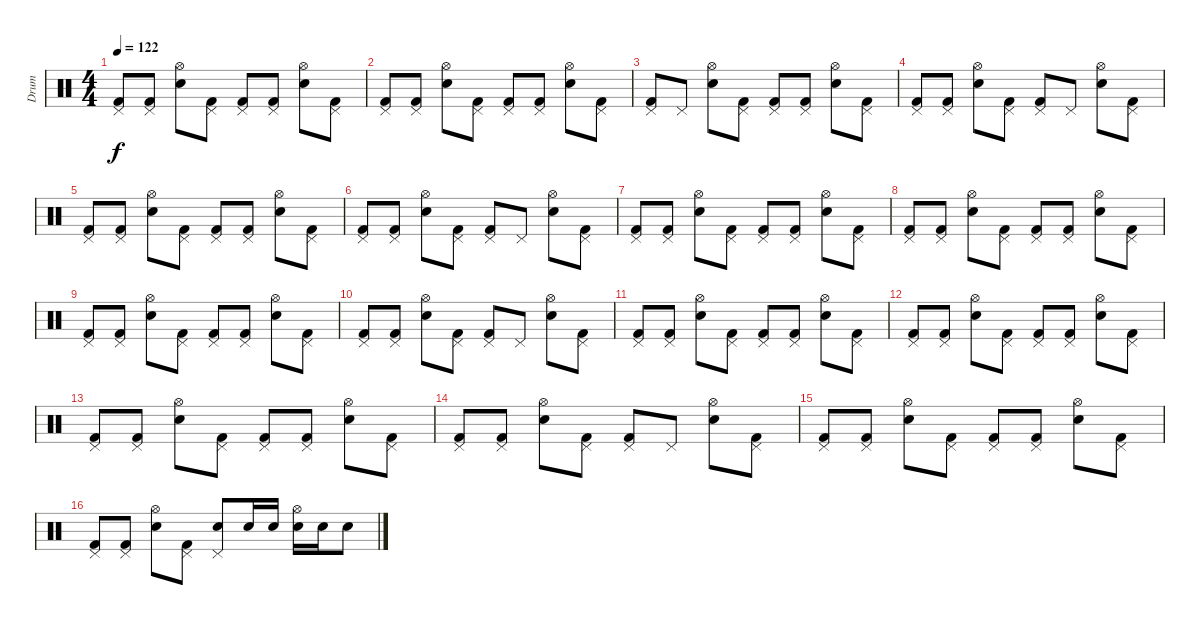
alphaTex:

\track ("Drum" "Drum") {instrument percussion}
\staff {score}
\articulation defaults
\ts (4 4)
\tempo 122
\clef neutral
\ks c
("Pedal Hi-Hat (hit)" "Kick (hit) 2").8{dy f} ("Pedal Hi-Hat (hit)" "Kick (hit) 2").8 ("Hi-Hat (open)" "Electric Snare (hit)").8 ("Pedal Hi-Hat (hit)" "Kick (hit) 2").8 ("Pedal Hi-Hat (hit)" "Kick (hit) 2").8 ("Pedal Hi-Hat (hit)" "Kick (hit) 2").8 ("Hi-Hat (open)" "Electric Snare (hit)").8 ("Pedal Hi-Hat (hit)" "Kick (hit) 2").8 |
("Pedal Hi-Hat (hit)" "Kick (hit) 2").8 ("Pedal Hi-Hat (hit)" "Kick (hit) 2").8 ("Hi-Hat (open)" "Electric Snare (hit)").8 ("Pedal Hi-Hat (hit)" "Kick (hit) 2").8 ("Pedal Hi-Hat (hit)" "Kick (hit) 2").8 ("Pedal Hi-Hat (hit)" "Kick (hit) 2").8 ("Hi-Hat (open)" "Electric Snare (hit)").8 ("Pedal Hi-Hat (hit)" "Kick (hit) 2").8 |
("Pedal Hi-Hat (hit)" "Kick (hit) 2").8 "Pedal Hi-Hat (hit)".8 ("Hi-Hat (open)" "Electric Snare (hit)").8 ("Pedal Hi-Hat (hit)" "Kick (hit) 2").8 ("Pedal Hi-Hat (hit)" "Kick (hit) 2").8 ("Pedal Hi-Hat (hit)" "Kick (hit) 2").8 ("Hi-Hat (open)" "Electric Snare (hit)").8 ("Pedal Hi-Hat (hit)" "Kick (hit) 2").8 |
("Pedal Hi-Hat (hit)" "Kick (hit) 2").8 ("Pedal Hi-Hat (hit)" "Kick (hit) 2").8 ("Hi-Hat (open)" "Electric Snare (hit)").8 ("Pedal Hi-Hat (hit)" "Kick (hit) 2").8 ("Pedal Hi-Hat (hit)" "Kick (hit) 2").8 "Pedal Hi-Hat (hit)".8 ("Hi-Hat (open)" "Electric Snare (hit)").8 ("Pedal Hi-Hat (hit)" "Kick (hit) 2").8 |
("Pedal Hi-Hat (hit)" "Kick (hit) 2").8 ("Pedal Hi-Hat (hit)" "Kick (hit) 2").8 ("Hi-Hat (open)" "Electric Snare (hit)").8 ("Pedal Hi-Hat (hit)" "Kick (hit) 2").8 ("Pedal Hi-Hat (hit)" "Kick (hit) 2").8 ("Pedal Hi-Hat (hit)" "Kick (hit) 2").8 ("Hi-Hat (open)" "Electric Snare (hit)").8 ("Pedal Hi-Hat (hit)" "Kick (hit) 2").8 |
("Pedal Hi-Hat (hit)" "Kick (hit) 2").8 ("Pedal Hi-Hat (hit)" "Kick (hit) 2").8 ("Hi-Hat (open)" "Electric Snare (hit)").8 ("Pedal Hi-Hat (hit)" "Kick (hit) 2").8 ("Pedal Hi-Hat (hit)" "Kick (hit) 2").8 "Pedal Hi-Hat (hit)".8 ("Hi-Hat (open)" "Electric Snare (hit)").8 ("Pedal Hi-Hat (hit)" "Kick (hit) 2").8 |
("Pedal Hi-Hat (hit)" "Kick (hit) 2").8 ("Pedal Hi-Hat (hit)" "Kick (hit) 2").8 ("Hi-Hat (open)" "Electric Snare (hit)").8 ("Pedal Hi-Hat (hit)" "Kick (hit) 2").8 ("Pedal Hi-Hat (hit)" "Kick (hit) 2").8 ("Pedal Hi-Hat (hit)" "Kick (hit) 2").8 ("Hi-Hat (open)" "Electric Snare (hit)").8 ("Pedal Hi-Hat (hit)" "Kick (hit) 2").8 |
("Pedal Hi-Hat (hit)" "Kick (hit) 2").8 ("Pedal Hi-Hat (hit)" "Kick (hit) 2").8 ("Hi-Hat (open)" "Electric Snare (hit)").8 ("Pedal Hi-Hat (hit)" "Kick (hit) 2").8 ("Pedal Hi-Hat (hit)" "Kick (hit) 2").8 ("Pedal Hi-Hat (hit)" "Kick (hit) 2").8 ("Hi-Hat (open)" "Electric Snare (hit)").8 ("Pedal Hi-Hat (hit)" "Kick (hit) 2").8 |
("Pedal Hi-Hat (hit)" "Kick (hit) 2").8 ("Pedal Hi-Hat (hit)" "Kick (hit) 2").8 ("Hi-Hat (open)" "Electric Snare (hit)").8 ("Pedal Hi-Hat (hit)" "Kick (hit) 2").8 ("Pedal Hi-Hat (hit)" "Kick (hit) 2").8 ("Pedal Hi-Hat (hit)" "Kick (hit) 2").8 ("Hi-Hat (open)" "Electric Snare (hit)").8 ("Pedal Hi-Hat (hit)" "Kick (hit) 2").8 |
("Pedal Hi-Hat (hit)" "Kick (hit) 2").8 ("Pedal Hi-Hat (hit)" "Kick (hit) 2").8 ("Hi-Hat (open)" "Electric Snare (hit)").8 ("Pedal Hi-Hat (hit)" "Kick (hit) 2").8 ("Pedal Hi-Hat (hit)" "Kick (hit) 2").8 "Pedal Hi-Hat (hit)".8 ("Hi-Hat (open)" "Electric Snare (hit)").8 ("Pedal Hi-Hat (hit)" "Kick (hit) 2").8 |
("Pedal Hi-Hat (hit)" "Kick (hit) 2").8 ("Pedal Hi-Hat (hit)" "Kick (hit) 2").8 ("Hi-Hat (open)" "Electric Snare (hit)").8 ("Pedal Hi-Hat (hit)" "Kick (hit) 2").8 ("Pedal Hi-Hat (hit)" "Kick (hit) 2").8 ("Pedal Hi-Hat (hit)" "Kick (hit) 2").8 ("Hi-Hat (open)" "Electric Snare (hit)").8 ("Pedal Hi-Hat (hit)" "Kick (hit) 2").8 |
("Pedal Hi-Hat (hit)" "Kick (hit) 2").8 ("Pedal Hi-Hat (hit)" "Kick (hit) 2").8 ("Hi-Hat (open)" "Electric Snare (hit)").8 ("Pedal Hi-Hat (hit)" "Kick (hit) 2").8 ("Pedal Hi-Hat (hit)" "Kick (hit) 2").8 ("Pedal Hi-Hat (hit)" "Kick (hit) 2").8 ("Hi-Hat (open)" "Electric Snare (hit)").8 ("Pedal Hi-Hat (hit)" "Kick (hit) 2").8 |
("Pedal Hi-Hat (hit)" "Kick (hit) 2").8 ("Pedal Hi-Hat (hit)" "Kick (hit) 2").8 ("Hi-Hat (open)" "Electric Snare (hit)").8 ("Pedal Hi-Hat (hit)" "Kick (hit) 2").8 ("Pedal Hi-Hat (hit)" "Kick (hit) 2").8 ("Pedal Hi-Hat (hit)" "Kick (hit) 2").8 ("Hi-Hat (open)" "Electric Snare (hit)").8 ("Pedal Hi-Hat (hit)" "Kick (hit) 2").8 |
("Pedal Hi-Hat (hit)" "Kick (hit) 2").8 ("Pedal Hi-Hat (hit)" "Kick (hit) 2").8 ("Hi-Hat (open)" "Electric Snare (hit)").8 ("Pedal Hi-Hat (hit)" "Kick (hit) 2").8 ("Pedal Hi-Hat (hit)" "Kick (hit) 2").8 "Pedal Hi-Hat (hit)".8 ("Hi-Hat (open)" "Electric Snare (hit)").8 ("Pedal Hi-Hat (hit)" "Kick (hit) 2").8 |
("Pedal Hi-Hat (hit)" "Kick (hit) 2").8 ("Pedal Hi-Hat (hit)" "Kick (hit) 2").8 ("Hi-Hat (open)" "Electric Snare (hit)").8 ("Pedal Hi-Hat (hit)" "Kick (hit) 2").8 ("Pedal Hi-Hat (hit)" "Kick (hit) 2").8 ("Pedal Hi-Hat (hit)" "Kick (hit) 2").8 ("Hi-Hat (open)" "Electric Snare (hit)").8 ("Pedal Hi-Hat (hit)" "Kick (hit) 2").8 |
("Pedal Hi-Hat (hit)" "Kick (hit) 2").8 ("Pedal Hi-Hat (hit)" "Kick (hit) 2").8 ("Hi-Hat (open)" "Electric Snare (hit)").8 ("Pedal Hi-Hat (hit)" "Kick (hit) 2").8 ("Pedal Hi-Hat (hit)" "Electric Snare (hit)").8 "Electric Snare (hit)".16 "Electric Snare (hit)".16 ("Hi-Hat (open)" "Electric Snare (hit)").16 "Electric Snare (hit)".16 "Electric Snare (hit)".8
